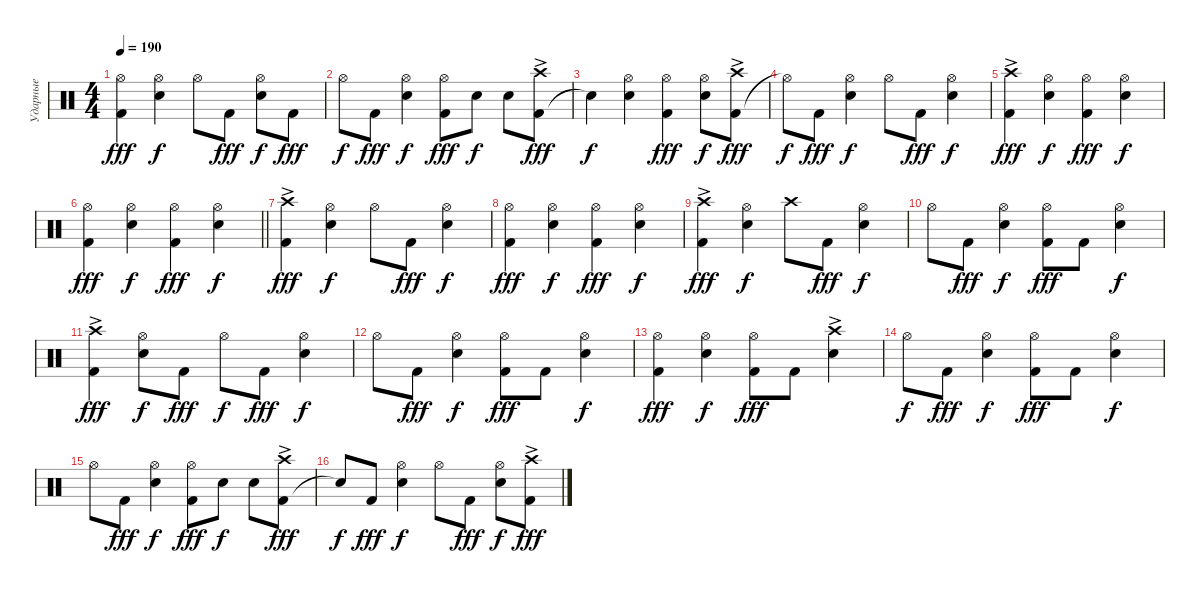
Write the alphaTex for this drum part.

\track ("Ударные" "Ударные") {instrument percussion}
\staff {score}
\articulation defaults
\ts (4 4)
\tempo 190
\clef neutral
\ks c
("Kick (hit) 2" "Hi-Hat (open)").4{dy fff} ("Snare (hit) 2" "Hi-Hat (open)").4{dy f} "Hi-Hat (open)".8 "Kick (hit) 2".8{dy fff} ("Snare (hit) 2" "Hi-Hat (open)").8{dy f} "Kick (hit) 2".8{dy fff} |
"Hi-Hat (open)".8{dy f} "Kick (hit) 2".8{dy fff} ("Snare (hit) 2" "Hi-Hat (open)").4{dy f} ("Kick (hit) 2" "Hi-Hat (open)").8{dy fff} "Snare (hit) 2".8{dy f} "Snare (hit) 2".8 ("Kick (hit) 2" "Crash high (hit)"{ac}).8{dy fff} |
"Snare (hit)"{t}.4{dy f} ("Snare (hit) 2" "Hi-Hat (open)").4 ("Kick (hit) 2" "Hi-Hat (open)").4{dy fff} ("Snare (hit) 2" "Hi-Hat (open)").8{dy f} ("Kick (hit) 2" "Crash high (hit)"{ac}).8{dy fff} |
"Hi-Hat (open)"{t}.8{dy f} "Kick (hit) 2".8{dy fff} ("Snare (hit) 2" "Hi-Hat (open)").4{dy f} "Hi-Hat (open)".8 "Kick (hit) 2".8{dy fff} ("Snare (hit) 2" "Hi-Hat (open)").4{dy f} |
("Kick (hit) 2" "Crash high (hit)"{ac}).4{dy fff} ("Snare (hit) 2" "Hi-Hat (open)").4{dy f} ("Kick (hit) 2" "Hi-Hat (open)").4{dy fff} ("Snare (hit) 2" "Hi-Hat (open)").4{dy f} |
\barLineRight lightlight
("Kick (hit) 2" "Hi-Hat (open)").4{dy fff} ("Snare (hit) 2" "Hi-Hat (open)").4{dy f} ("Kick (hit) 2" "Hi-Hat (open)").4{dy fff} ("Snare (hit) 2" "Hi-Hat (open)").4{dy f} |
("Kick (hit) 2" "Crash high (hit)"{ac}).4{dy fff} ("Snare (hit) 2" "Hi-Hat (open)").4{dy f} "Hi-Hat (open)".8 "Kick (hit) 2".8{dy fff} ("Snare (hit) 2" "Hi-Hat (open)").4{dy f} |
("Kick (hit) 2" "Hi-Hat (open)").4{dy fff} ("Snare (hit) 2" "Hi-Hat (open)").4{dy f} ("Kick (hit) 2" "Hi-Hat (open)").4{dy fff} ("Snare (hit) 2" "Hi-Hat (open)").4{dy f} |
("Kick (hit) 2" "Crash high (hit)"{ac}).4{dy fff} ("Snare (hit) 2" "Hi-Hat (open)").4{dy f} "Crash high (hit)".8 "Kick (hit) 2".8{dy fff} ("Snare (hit) 2" "Hi-Hat (open)").4{dy f} |
"Hi-Hat (open)".8 "Kick (hit) 2".8{dy fff} ("Snare (hit) 2" "Hi-Hat (open)").4{dy f} ("Kick (hit) 2" "Hi-Hat (open)").8{dy fff} "Kick (hit) 2".8 ("Snare (hit) 2" "Hi-Hat (open)").4{dy f} |
("Kick (hit) 2" "Crash high (hit)"{ac}).4{dy fff} ("Snare (hit) 2" "Hi-Hat (open)").8{dy f} "Kick (hit) 2".8{dy fff} "Hi-Hat (open)".8{dy f} "Kick (hit) 2".8{dy fff} ("Snare (hit) 2" "Hi-Hat (open)").4{dy f} |
"Hi-Hat (open)".8 "Kick (hit) 2".8{dy fff} ("Snare (hit) 2" "Hi-Hat (open)").4{dy f} ("Kick (hit) 2" "Hi-Hat (open)").8{dy fff} "Kick (hit) 2".8 ("Snare (hit) 2" "Hi-Hat (open)").4{dy f} |
("Kick (hit) 2" "Hi-Hat (open)").4{dy fff} ("Snare (hit) 2" "Hi-Hat (open)").4{dy f} ("Kick (hit) 2" "Hi-Hat (open)").8{dy fff} "Kick (hit) 2".8 ("Snare (hit) 2" "Crash high (hit)"{ac}).4 |
"Hi-Hat (open)".8{dy f} "Kick (hit) 2".8{dy fff} ("Snare (hit) 2" "Hi-Hat (open)").4{dy f} ("Kick (hit) 2" "Hi-Hat (open)").8{dy fff} "Kick (hit) 2".8 ("Snare (hit) 2" "Hi-Hat (open)").4{dy f} |
"Hi-Hat (open)".8 "Kick (hit) 2".8{dy fff} ("Snare (hit) 2" "Hi-Hat (open)").4{dy f} ("Kick (hit) 2" "Hi-Hat (open)").8{dy fff} "Snare (hit) 2".8{dy f} "Snare (hit) 2".8 ("Kick (hit) 2" "Crash high (hit)"{ac}).8{dy fff} |
"Snare (hit)"{t}.8{dy f} "Kick (hit) 2".8{dy fff} ("Snare (hit) 2" "Hi-Hat (open)").4{dy f} "Hi-Hat (open)".8 "Kick (hit) 2".8{dy fff} ("Snare (hit) 2" "Hi-Hat (open)").8{dy f} ("Kick (hit) 2" "Crash high (hit)"{ac}).8{dy fff}
